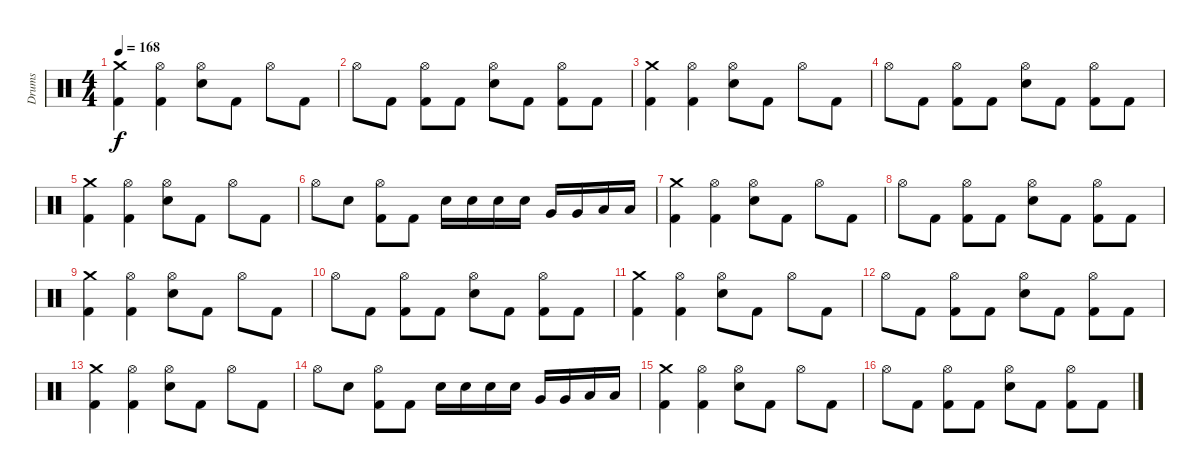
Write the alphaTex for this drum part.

\track ("Drums" "Drums") {instrument percussion}
\staff
\articulation defaults
\ts (4 4)
\tempo 168
\clef neutral
\ks c
("Crash medium (hit)" "Kick (hit) 2").4{dy f} ("Hi-Hat (open)" "Kick (hit) 2").4 ("Hi-Hat (open)" "Electric Snare (hit)").8 "Kick (hit) 2".8 "Hi-Hat (open)".8 "Kick (hit) 2".8 |
"Hi-Hat (open)".8 "Kick (hit) 2".8 ("Hi-Hat (open)" "Kick (hit) 2").8 "Kick (hit) 2".8 ("Hi-Hat (open)" "Electric Snare (hit)").8 "Kick (hit) 2".8 ("Hi-Hat (open)" "Kick (hit) 2").8 "Kick (hit) 2".8 |
("Crash medium (hit)" "Kick (hit) 2").4 ("Hi-Hat (open)" "Kick (hit) 2").4 ("Hi-Hat (open)" "Electric Snare (hit)").8 "Kick (hit) 2".8 "Hi-Hat (open)".8 "Kick (hit) 2".8 |
"Hi-Hat (open)".8 "Kick (hit) 2".8 ("Hi-Hat (open)" "Kick (hit) 2").8 "Kick (hit) 2".8 ("Hi-Hat (open)" "Electric Snare (hit)").8 "Kick (hit) 2".8 ("Hi-Hat (open)" "Kick (hit) 2").8 "Kick (hit) 2".8 |
("Crash medium (hit)" "Kick (hit) 2").4 ("Hi-Hat (open)" "Kick (hit) 2").4 ("Hi-Hat (open)" "Electric Snare (hit)").8 "Kick (hit) 2".8 "Hi-Hat (open)".8 "Kick (hit) 2".8 |
"Hi-Hat (open)".8 "Electric Snare (hit)".8 ("Hi-Hat (open)" "Kick (hit) 2").8 "Kick (hit) 2".8 "Electric Snare (hit)".16 "Electric Snare (hit)".16 "Electric Snare (hit)".16 "Electric Snare (hit)".16 "Very Low Tom (hit)".16 "Very Low Tom (hit)".16 "Low Floor Tom (hit)".16 "Low Floor Tom (hit)".16 |
("Crash medium (hit)" "Kick (hit) 2").4 ("Hi-Hat (open)" "Kick (hit) 2").4 ("Hi-Hat (open)" "Electric Snare (hit)").8 "Kick (hit) 2".8 "Hi-Hat (open)".8 "Kick (hit) 2".8 |
"Hi-Hat (open)".8 "Kick (hit) 2".8 ("Hi-Hat (open)" "Kick (hit) 2").8 "Kick (hit) 2".8 ("Hi-Hat (open)" "Electric Snare (hit)").8 "Kick (hit) 2".8 ("Hi-Hat (open)" "Kick (hit) 2").8 "Kick (hit) 2".8 |
("Crash medium (hit)" "Kick (hit) 2").4 ("Hi-Hat (open)" "Kick (hit) 2").4 ("Hi-Hat (open)" "Electric Snare (hit)").8 "Kick (hit) 2".8 "Hi-Hat (open)".8 "Kick (hit) 2".8 |
"Hi-Hat (open)".8 "Kick (hit) 2".8 ("Hi-Hat (open)" "Kick (hit) 2").8 "Kick (hit) 2".8 ("Hi-Hat (open)" "Electric Snare (hit)").8 "Kick (hit) 2".8 ("Hi-Hat (open)" "Kick (hit) 2").8 "Kick (hit) 2".8 |
("Crash medium (hit)" "Kick (hit) 2").4 ("Hi-Hat (open)" "Kick (hit) 2").4 ("Hi-Hat (open)" "Electric Snare (hit)").8 "Kick (hit) 2".8 "Hi-Hat (open)".8 "Kick (hit) 2".8 |
"Hi-Hat (open)".8 "Kick (hit) 2".8 ("Hi-Hat (open)" "Kick (hit) 2").8 "Kick (hit) 2".8 ("Hi-Hat (open)" "Electric Snare (hit)").8 "Kick (hit) 2".8 ("Hi-Hat (open)" "Kick (hit) 2").8 "Kick (hit) 2".8 |
("Crash medium (hit)" "Kick (hit) 2").4 ("Hi-Hat (open)" "Kick (hit) 2").4 ("Hi-Hat (open)" "Electric Snare (hit)").8 "Kick (hit) 2".8 "Hi-Hat (open)".8 "Kick (hit) 2".8 |
"Hi-Hat (open)".8 "Electric Snare (hit)".8 ("Hi-Hat (open)" "Kick (hit) 2").8 "Kick (hit) 2".8 "Electric Snare (hit)".16 "Electric Snare (hit)".16 "Electric Snare (hit)".16 "Electric Snare (hit)".16 "Very Low Tom (hit)".16 "Very Low Tom (hit)".16 "Low Floor Tom (hit)".16 "Low Floor Tom (hit)".16 |
("Crash medium (hit)" "Kick (hit) 2").4 ("Hi-Hat (open)" "Kick (hit) 2").4 ("Hi-Hat (open)" "Electric Snare (hit)").8 "Kick (hit) 2".8 "Hi-Hat (open)".8 "Kick (hit) 2".8 |
"Hi-Hat (open)".8 "Kick (hit) 2".8 ("Hi-Hat (open)" "Kick (hit) 2").8 "Kick (hit) 2".8 ("Hi-Hat (open)" "Electric Snare (hit)").8 "Kick (hit) 2".8 ("Hi-Hat (open)" "Kick (hit) 2").8 "Kick (hit) 2".8
